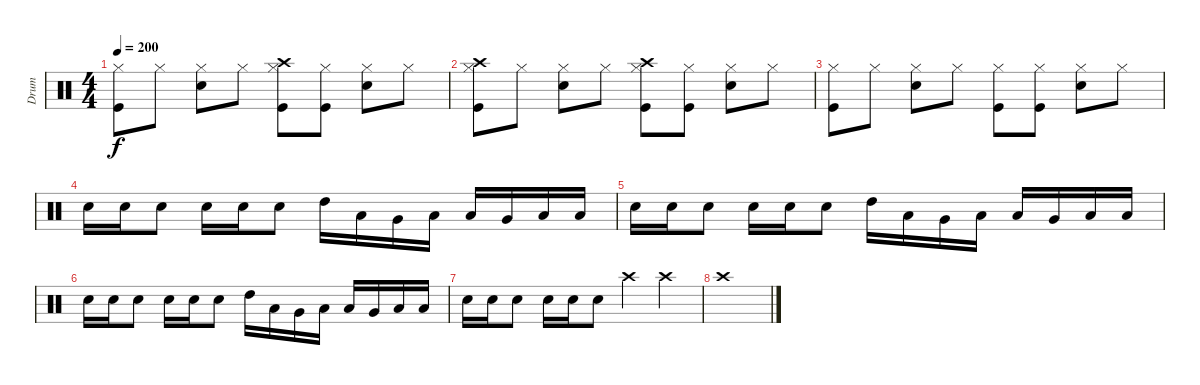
\track ("Drum" "Drum") {instrument percussion}
\staff {score}
\articulation defaults
\ts (4 4)
\tempo 200
\clef neutral
\ks c
("Hi-Hat (closed)" "Kick (hit)").8{dy f} "Hi-Hat (closed)".8 ("Hi-Hat (closed)" "Electric Snare (hit)").8 "Hi-Hat (closed)".8 ("Crash high (hit)" "Hi-Hat (closed)" "Kick (hit)").8 ("Hi-Hat (closed)" "Kick (hit)").8 ("Hi-Hat (closed)" "Electric Snare (hit)").8 "Hi-Hat (closed)".8 |
("Crash high (hit)" "Hi-Hat (closed)" "Kick (hit)").8 "Hi-Hat (closed)".8 ("Hi-Hat (closed)" "Electric Snare (hit)").8 "Hi-Hat (closed)".8 ("Crash high (hit)" "Hi-Hat (closed)" "Kick (hit)").8 ("Hi-Hat (closed)" "Kick (hit)").8 ("Hi-Hat (closed)" "Electric Snare (hit)").8 "Hi-Hat (closed)".8 |
("Hi-Hat (closed)" "Kick (hit)").8 "Hi-Hat (closed)".8 ("Hi-Hat (closed)" "Electric Snare (hit)").8 "Hi-Hat (closed)".8 ("Hi-Hat (closed)" "Kick (hit)").8 ("Hi-Hat (closed)" "Kick (hit)").8 ("Hi-Hat (closed)" "Electric Snare (hit)").8 "Hi-Hat (closed)".8 |
"Electric Snare (hit)".16 "Electric Snare (hit)".16 "Electric Snare (hit)".8 "Electric Snare (hit)".16 "Electric Snare (hit)".16 "Electric Snare (hit)".8 "High Tom (hit)".16 "Low Tom (hit)".16 "Very Low Tom (hit)".16 "Low Floor Tom (hit)".16 "Low Tom (hit)".16 "Very Low Tom (hit)".16 "Low Floor Tom (hit)".16 "Low Floor Tom (hit)".16 |
"Electric Snare (hit)".16 "Electric Snare (hit)".16 "Electric Snare (hit)".8 "Electric Snare (hit)".16 "Electric Snare (hit)".16 "Electric Snare (hit)".8 "High Tom (hit)".16 "Low Tom (hit)".16 "Very Low Tom (hit)".16 "Low Floor Tom (hit)".16 "Low Tom (hit)".16 "Very Low Tom (hit)".16 "Low Floor Tom (hit)".16 "Low Floor Tom (hit)".16 |
"Electric Snare (hit)".16 "Electric Snare (hit)".16 "Electric Snare (hit)".8 "Electric Snare (hit)".16 "Electric Snare (hit)".16 "Electric Snare (hit)".8 "High Tom (hit)".16 "Low Tom (hit)".16 "Very Low Tom (hit)".16 "Low Floor Tom (hit)".16 "Low Tom (hit)".16 "Very Low Tom (hit)".16 "Low Floor Tom (hit)".16 "Low Floor Tom (hit)".16 |
"Electric Snare (hit)".16 "Electric Snare (hit)".16 "Electric Snare (hit)".8 "Electric Snare (hit)".16 "Electric Snare (hit)".16 "Electric Snare (hit)".8 "Crash high (hit)".4 "Crash high (hit)".4 |
"Crash high (hit)".1
